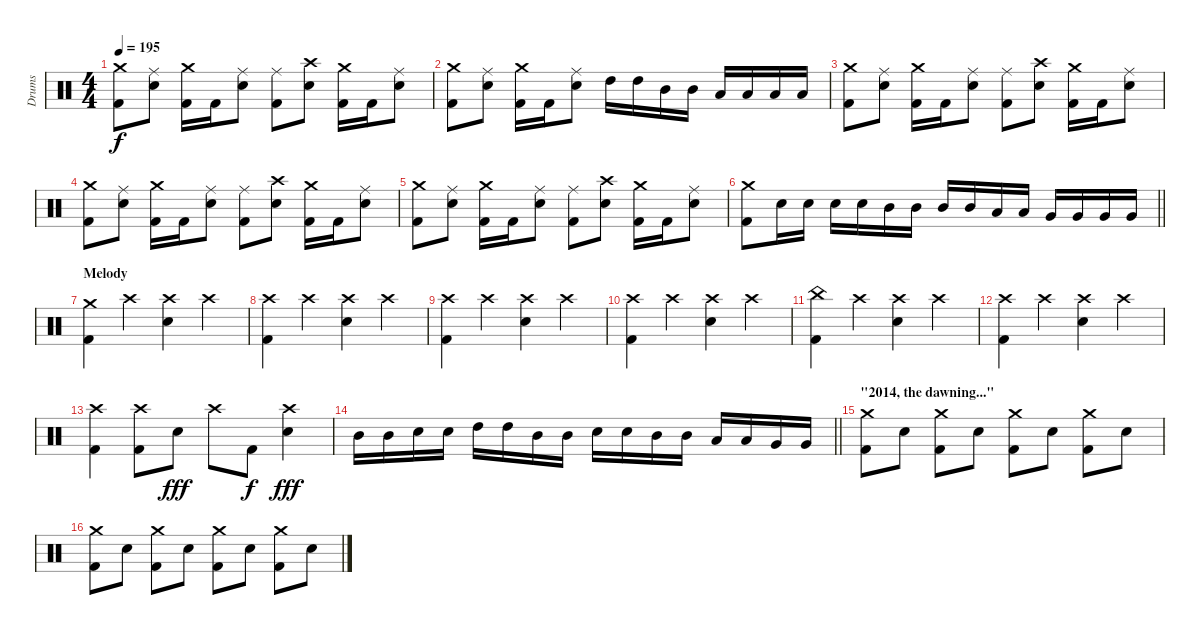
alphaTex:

\track ("Drums" "Drums") {instrument percussion}
\staff {score}
\articulation defaults
\ts (4 4)
\tempo 195
\clef neutral
\ks c
("Crash medium (hit)" "Kick (hit) 2").8{dy f} ("Ride (middle)" "Snare (hit) 2").8 ("Crash medium (hit)" "Kick (hit) 2").16 "Kick (hit) 2".16 ("Ride (middle)" "Snare (hit) 2").8 ("Ride (middle)" "Kick (hit) 2").8 ("Crash high (hit)" "Snare (hit) 2").8 ("Crash medium (hit)" "Kick (hit) 2").16 "Kick (hit) 2".16 ("Ride (middle)" "Snare (hit) 2").8 |
("Crash medium (hit)" "Kick (hit) 2").8 ("Ride (middle)" "Snare (hit) 2").8 ("Crash medium (hit)" "Kick (hit) 2").16 "Kick (hit) 2".16 ("Ride (middle)" "Snare (hit) 2").8 "High Tom (hit)".16 "High Tom (hit)".16 "Mid Tom (hit)".16 "Mid Tom (hit)".16 "Low Tom (hit)".16 "Low Tom (hit)".16 "Low Tom (hit)".16 "Low Tom (hit)".16 |
("Crash medium (hit)" "Kick (hit) 2").8 ("Ride (middle)" "Snare (hit) 2").8 ("Crash medium (hit)" "Kick (hit) 2").16 "Kick (hit) 2".16 ("Ride (middle)" "Snare (hit) 2").8 ("Ride (middle)" "Kick (hit) 2").8 ("Crash high (hit)" "Snare (hit) 2").8 ("Crash medium (hit)" "Kick (hit) 2").16 "Kick (hit) 2".16 ("Ride (middle)" "Snare (hit) 2").8 |
("Crash medium (hit)" "Kick (hit) 2").8 ("Ride (middle)" "Snare (hit) 2").8 ("Crash medium (hit)" "Kick (hit) 2").16 "Kick (hit) 2".16 ("Ride (middle)" "Snare (hit) 2").8 ("Ride (middle)" "Kick (hit) 2").8 ("Crash high (hit)" "Snare (hit) 2").8 ("Crash medium (hit)" "Kick (hit) 2").16 "Kick (hit) 2".16 ("Ride (middle)" "Snare (hit) 2").8 |
("Crash medium (hit)" "Kick (hit) 2").8 ("Ride (middle)" "Snare (hit) 2").8 ("Crash medium (hit)" "Kick (hit) 2").16 "Kick (hit) 2".16 ("Ride (middle)" "Snare (hit) 2").8 ("Ride (middle)" "Kick (hit) 2").8 ("Crash high (hit)" "Snare (hit) 2").8 ("Crash medium (hit)" "Kick (hit) 2").16 "Kick (hit) 2".16 ("Ride (middle)" "Snare (hit) 2").8 |
\barLineRight lightlight
("Crash medium (hit)" "Kick (hit) 2").8 "Snare (hit) 2".16 "Snare (hit) 2".16 "Snare (hit) 2".16 "Snare (hit) 2".16 "Mid Tom (hit)".16 "Mid Tom (hit)".16 "Mid Tom (hit)".16 "Mid Tom (hit)".16 "Low Tom (hit)".16 "Low Tom (hit)".16 "Very Low Tom (hit)".16 "Very Low Tom (hit)".16 "Very Low Tom (hit)".16 "Very Low Tom (hit)".16 |
\section ("" "Melody")
("Crash medium (hit)" "Kick (hit) 2").4 "Crash high (hit)".4 ("Crash high (hit)" "Snare (hit) 2").4 "Crash high (hit)".4 |
("Crash high (hit)" "Kick (hit) 2").4 "Crash high (hit)".4 ("Crash high (hit)" "Snare (hit) 2").4 "Crash high (hit)".4 |
("Crash high (hit)" "Kick (hit) 2").4 "Crash high (hit)".4 ("Crash high (hit)" "Snare (hit) 2").4 "Crash high (hit)".4 |
("Crash high (hit)" "Kick (hit) 2").4 "Crash high (hit)".4 ("Crash high (hit)" "Snare (hit) 2").4 "Crash high (hit)".4 |
("China (hit)" "Kick (hit) 2").4 "Crash high (hit)".4 ("Crash high (hit)" "Snare (hit) 2").4 "Crash high (hit)".4 |
("Crash high (hit)" "Kick (hit) 2").4 "Crash high (hit)".4 ("Crash high (hit)" "Snare (hit) 2").4 "Crash high (hit)".4 |
("Crash high (hit)" "Kick (hit) 2").4 ("Crash high (hit)" "Kick (hit) 2").8 "Snare (hit) 2".8{dy fff} "Crash high (hit)".8 "Kick (hit) 2".8{dy f} ("Crash high (hit)" "Snare (hit) 2").4{dy fff} |
\barLineRight lightlight "Mid Tom (hit)".16 "Mid Tom (hit)".16 "Snare (hit) 2".16 "Snare (hit) 2".16 "High Tom (hit)".16 "High Tom (hit)".16 "Mid Tom (hit)".16 "Mid Tom (hit)".16 "Snare (hit) 2".16 "Snare (hit) 2".16 "Mid Tom (hit)".16 "Mid Tom (hit)".16 "Low Tom (hit)".16 "Low Tom (hit)".16 "Very Low Tom (hit)".16 "Very Low Tom (hit)".16
|
\section ("" "\"2014, the dawning...\"")
("Crash medium (hit)" "Kick (hit) 2").8 "Snare (hit) 2".8 ("Crash medium (hit)" "Kick (hit) 2").8 "Snare (hit) 2".8 ("Crash medium (hit)" "Kick (hit) 2").8 "Snare (hit) 2".8 ("Crash medium (hit)" "Kick (hit) 2").8 "Snare (hit) 2".8 |
("Crash medium (hit)" "Kick (hit) 2").8 "Snare (hit) 2".8 ("Crash medium (hit)" "Kick (hit) 2").8 "Snare (hit) 2".8 ("Crash medium (hit)" "Kick (hit) 2").8 "Snare (hit) 2".8 ("Crash medium (hit)" "Kick (hit) 2").8 "Snare (hit) 2".8
